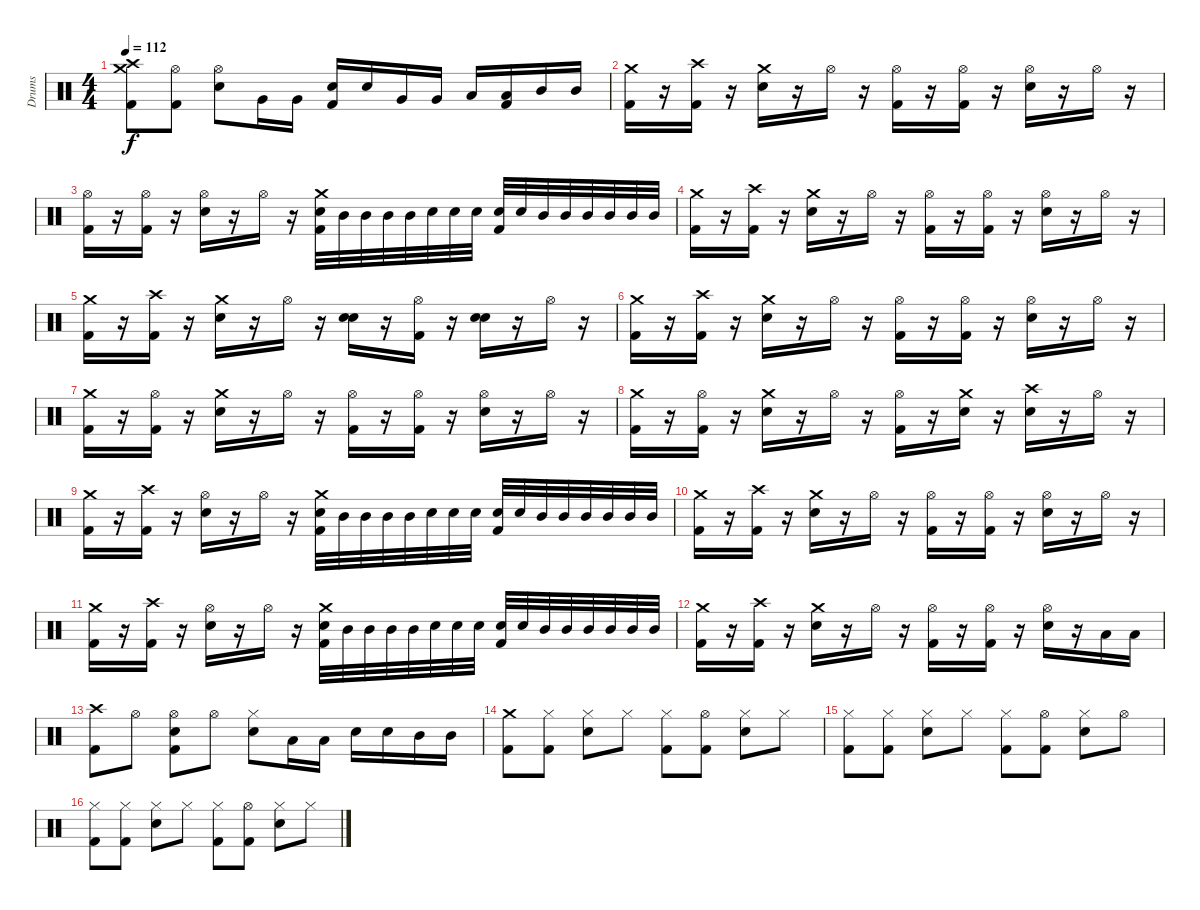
\track ("Drums" "Drums") {instrument percussion}
\staff {score}
\articulation defaults
\ts (4 4)
\tempo 112
\clef neutral
\ks c
("Crash high (hit)" "Crash medium (hit)" "Kick (hit) 2").8{dy f} ("Kick (hit) 2" "Hi-Hat (open)").8 ("Electric Snare (hit)" "Hi-Hat (open)").8 "Very Low Tom (hit)".16 "Very Low Tom (hit)".16 ("Kick (hit) 2" "Electric Snare (hit)").16 "Electric Snare (hit)".16 "Very Low Tom (hit)".16 "Very Low Tom (hit)".16 "Low Tom (hit)".16 ("Low Tom (hit)" "Kick (hit) 2").16 "Mid Tom (hit)".16 "Mid Tom (hit)".16 |
("Kick (hit) 2" "Crash medium (hit)").16 r.16 ("Kick (hit) 2" "Crash high (hit)").16 r.16 ("Crash medium (hit)" "Electric Snare (hit)").16 r.16 "Hi-Hat (open)".16 r.16 ("Kick (hit) 2" "Hi-Hat (open)").16 r.16 ("Kick (hit) 2" "Hi-Hat (open)").16 r.16 ("Electric Snare (hit)" "Hi-Hat (open)").16 r.16 "Hi-Hat (open)".16 r.16 |
("Kick (hit) 2" "Hi-Hat (open)").16 r.16 ("Kick (hit) 2" "Hi-Hat (open)").16 r.16 ("Electric Snare (hit)" "Hi-Hat (open)").16 r.16 "Hi-Hat (open)".16 r.16 ("Kick (hit) 2" "Electric Snare (hit)" "Crash medium (hit)").32 "Mid Tom (hit)".32 "Mid Tom (hit)".32 "Mid Tom (hit)".32 "Mid Tom (hit)".32 "Electric Snare (hit)".32 "Electric Snare (hit)".32 "Electric Snare (hit)".32 ("Kick (hit) 2" "Electric Snare (hit)").32 "Electric Snare (hit)".32 "Mid Tom (hit)".32 "Mid Tom (hit)".32 "Mid Tom (hit)".32 "Mid Tom (hit)".32 "Mid Tom (hit)".32 "Mid Tom (hit)".32 |
("Kick (hit) 2" "Crash medium (hit)").16 r.16 ("Kick (hit) 2" "Crash high (hit)").16 r.16 ("Crash medium (hit)" "Electric Snare (hit)").16 r.16 "Hi-Hat (open)".16 r.16 ("Kick (hit) 2" "Hi-Hat (open)").16 r.16 ("Kick (hit) 2" "Hi-Hat (open)").16 r.16 ("Electric Snare (hit)" "Hi-Hat (open)").16 r.16 "Hi-Hat (open)".16 r.16 |
("Kick (hit) 2" "Crash medium (hit)").16 r.16 ("Kick (hit) 2" "Crash high (hit)").16 r.16 ("Crash medium (hit)" "Electric Snare (hit)").16 r.16 "Hi-Hat (open)".16 r.16 ("Electric Snare (hit)" "Electric Snare (hit)").16 r.16 ("Kick (hit) 2" "Hi-Hat (open)").16 r.16 ("Electric Snare (hit)" "Electric Snare (hit)").16 r.16 "Hi-Hat (open)".16 r.16 |
("Kick (hit) 2" "Crash medium (hit)").16 r.16 ("Kick (hit) 2" "Crash high (hit)").16 r.16 ("Crash medium (hit)" "Electric Snare (hit)").16 r.16 "Hi-Hat (open)".16 r.16 ("Kick (hit) 2" "Hi-Hat (open)").16 r.16 ("Kick (hit) 2" "Hi-Hat (open)").16 r.16 ("Electric Snare (hit)" "Hi-Hat (open)").16 r.16 "Hi-Hat (open)".16 r.16 |
("Kick (hit) 2" "Crash medium (hit)").16 r.16 ("Kick (hit) 2" "Hi-Hat (open)").16 r.16 ("Crash medium (hit)" "Electric Snare (hit)").16 r.16 "Hi-Hat (open)".16 r.16 ("Kick (hit) 2" "Hi-Hat (open)").16 r.16 ("Kick (hit) 2" "Hi-Hat (open)").16 r.16 ("Electric Snare (hit)" "Hi-Hat (open)").16 r.16 "Hi-Hat (open)".16 r.16 |
("Kick (hit) 2" "Crash medium (hit)").16 r.16 ("Kick (hit) 2" "Hi-Hat (open)").16 r.16 ("Crash medium (hit)" "Electric Snare (hit)").16 r.16 "Hi-Hat (open)".16 r.16 ("Kick (hit) 2" "Hi-Hat (open)").16 r.16 ("Electric Snare (hit)" "Crash medium (hit)").16 r.16 ("Electric Snare (hit)" "Crash high (hit)").16 r.16 "Hi-Hat (open)".16 r.16 |
("Kick (hit) 2" "Crash medium (hit)").16 r.16 ("Kick (hit) 2" "Crash high (hit)").16 r.16 ("Electric Snare (hit)" "Hi-Hat (open)").16 r.16 "Hi-Hat (open)".16 r.16 ("Kick (hit) 2" "Electric Snare (hit)" "Crash medium (hit)").32 "Mid Tom (hit)".32 "Mid Tom (hit)".32 "Mid Tom (hit)".32 "Mid Tom (hit)".32 "Electric Snare (hit)".32 "Electric Snare (hit)".32 "Electric Snare (hit)".32 ("Kick (hit) 2" "Electric Snare (hit)").32 "Electric Snare (hit)".32 "Mid Tom (hit)".32 "Mid Tom (hit)".32 "Mid Tom (hit)".32 "Mid Tom (hit)".32 "Mid Tom (hit)".32 "Mid Tom (hit)".32 |
("Kick (hit) 2" "Crash medium (hit)").16 r.16 ("Kick (hit) 2" "Crash high (hit)").16 r.16 ("Crash medium (hit)" "Electric Snare (hit)").16 r.16 "Hi-Hat (open)".16 r.16 ("Kick (hit) 2" "Hi-Hat (open)").16 r.16 ("Kick (hit) 2" "Hi-Hat (open)").16 r.16 ("Electric Snare (hit)" "Hi-Hat (open)").16 r.16 "Hi-Hat (open)".16 r.16 |
("Kick (hit) 2" "Crash medium (hit)").16 r.16 ("Kick (hit) 2" "Crash high (hit)").16 r.16 ("Electric Snare (hit)" "Hi-Hat (open)").16 r.16 "Hi-Hat (open)".16 r.16 ("Kick (hit) 2" "Electric Snare (hit)" "Crash medium (hit)").32 "Mid Tom (hit)".32 "Mid Tom (hit)".32 "Mid Tom (hit)".32 "Mid Tom (hit)".32 "Electric Snare (hit)".32 "Electric Snare (hit)".32 "Electric Snare (hit)".32 ("Kick (hit) 2" "Electric Snare (hit)").32 "Electric Snare (hit)".32 "Mid Tom (hit)".32 "Mid Tom (hit)".32 "Mid Tom (hit)".32 "Mid Tom (hit)".32 "Mid Tom (hit)".32 "Mid Tom (hit)".32 |
("Kick (hit) 2" "Crash medium (hit)").16 r.16 ("Kick (hit) 2" "Crash high (hit)").16 r.16 ("Crash medium (hit)" "Electric Snare (hit)").16 r.16 "Hi-Hat (open)".16 r.16 ("Kick (hit) 2" "Hi-Hat (open)").16 r.16 ("Kick (hit) 2" "Hi-Hat (open)").16 r.16 ("Electric Snare (hit)" "Hi-Hat (open)").16 r.16 "Low Tom (hit)".16 "Low Tom (hit)".16 |
("Kick (hit) 2" "Crash high (hit)").8 "Hi-Hat (open)".8 ("Electric Snare (hit)" "Hi-Hat (open)" "Kick (hit) 2").8 "Hi-Hat (open)".8 ("Electric Snare (hit)" "Hi-Hat (closed)").8 "Low Tom (hit)".16 "Low Tom (hit)".16 "Electric Snare (hit)".16 "Electric Snare (hit)".16 "Mid Tom (hit)".16 "Mid Tom (hit)".16 |
("Kick (hit) 2" "Crash medium (hit)").8 ("Kick (hit) 2" "Hi-Hat (closed)").8 ("Electric Snare (hit)" "Hi-Hat (closed)").8 "Hi-Hat (closed)".8 ("Kick (hit) 2" "Hi-Hat (closed)").8 ("Kick (hit) 2" "Hi-Hat (open)").8 ("Electric Snare (hit)" "Hi-Hat (closed)").8 "Hi-Hat (closed)".8 |
("Kick (hit) 2" "Hi-Hat (closed)").8 ("Kick (hit) 2" "Hi-Hat (closed)").8 ("Electric Snare (hit)" "Hi-Hat (closed)").8 "Hi-Hat (closed)".8 ("Kick (hit) 2" "Hi-Hat (closed)").8 ("Kick (hit) 2" "Hi-Hat (open)").8 ("Electric Snare (hit)" "Hi-Hat (closed)").8 "Hi-Hat (open)".8 |
("Hi-Hat (closed)" "Kick (hit) 2").8 ("Kick (hit) 2" "Hi-Hat (closed)").8 ("Electric Snare (hit)" "Hi-Hat (closed)").8 "Hi-Hat (closed)".8 ("Kick (hit) 2" "Hi-Hat (closed)").8 ("Kick (hit) 2" "Hi-Hat (open)").8 ("Electric Snare (hit)" "Hi-Hat (closed)").8 "Hi-Hat (closed)".8
